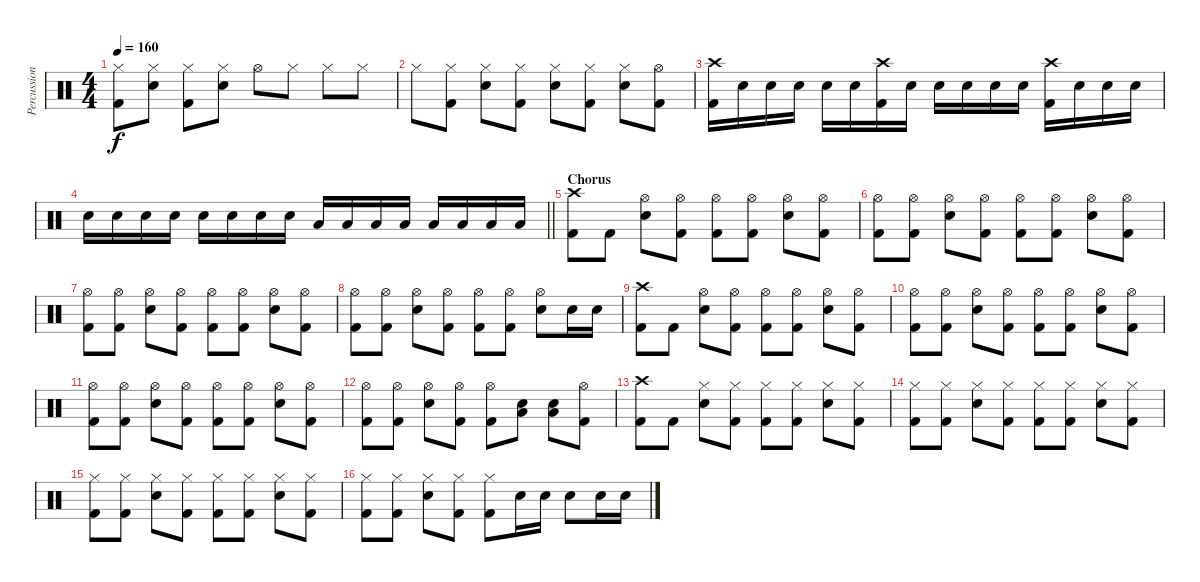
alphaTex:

\track ("Percussion" "Percussion") {instrument percussion}
\staff {score}
\articulation defaults
\ts (4 4)
\tempo 160
\clef neutral
\ks c
("Hi-Hat (closed)" "Kick (hit) 2").8{dy f} ("Hi-Hat (closed)" "Electric Snare (hit)").8 ("Hi-Hat (closed)" "Kick (hit) 2").8 ("Hi-Hat (closed)" "Electric Snare (hit)").8 "Hi-Hat (open)".8 "Hi-Hat (closed)".8 "Hi-Hat (closed)".8 "Hi-Hat (closed)".8 |
"Hi-Hat (closed)".8 ("Hi-Hat (closed)" "Kick (hit) 2").8 ("Hi-Hat (closed)" "Electric Snare (hit)").8 ("Hi-Hat (closed)" "Kick (hit) 2").8 ("Hi-Hat (closed)" "Electric Snare (hit)").8 ("Hi-Hat (closed)" "Kick (hit) 2").8 ("Hi-Hat (closed)" "Electric Snare (hit)").8 ("Hi-Hat (open)" "Kick (hit) 2").8 |
("Crash high (hit)" "Kick (hit) 2").16 "Electric Snare (hit)".16 "Electric Snare (hit)".16 "Electric Snare (hit)".16 "Electric Snare (hit)".16 "Electric Snare (hit)".16 ("Crash high (hit)" "Kick (hit) 2").16 "Electric Snare (hit)".16 "Electric Snare (hit)".16 "Electric Snare (hit)".16 "Electric Snare (hit)".16 "Electric Snare (hit)".16 ("Crash high (hit)" "Kick (hit) 2").16 "Electric Snare (hit)".16 "Electric Snare (hit)".16 "Electric Snare (hit)".16 |
\barLineRight lightlight "Electric Snare (hit)".16 "Electric Snare (hit)".16 "Electric Snare (hit)".16 "Electric Snare (hit)".16 "Electric Snare (hit)".16 "Electric Snare (hit)".16 "Electric Snare (hit)".16 "Electric Snare (hit)".16 "Low Tom (hit)".16 "Low Tom (hit)".16 "Low Tom (hit)".16 "Low Tom (hit)".16 "Low Tom (hit)".16 "Low Tom (hit)".16 "Low Tom (hit)".16 "Low Tom (hit)".16
|
\section ("" "Chorus")
("Crash high (hit)" "Kick (hit) 2").8 "Kick (hit) 2".8 ("Hi-Hat (open)" "Electric Snare (hit)").8 ("Hi-Hat (open)" "Kick (hit) 2").8 ("Hi-Hat (open)" "Kick (hit) 2").8 ("Hi-Hat (open)" "Kick (hit) 2").8 ("Hi-Hat (open)" "Electric Snare (hit)").8 ("Hi-Hat (open)" "Kick (hit) 2").8 |
("Hi-Hat (open)" "Kick (hit) 2").8 ("Hi-Hat (open)" "Kick (hit) 2").8 ("Hi-Hat (open)" "Electric Snare (hit)").8 ("Hi-Hat (open)" "Kick (hit) 2").8 ("Hi-Hat (open)" "Kick (hit) 2").8 ("Hi-Hat (open)" "Kick (hit) 2").8 ("Hi-Hat (open)" "Electric Snare (hit)").8 ("Hi-Hat (open)" "Kick (hit) 2").8 |
("Hi-Hat (open)" "Kick (hit) 2").8 ("Hi-Hat (open)" "Kick (hit) 2").8 ("Hi-Hat (open)" "Electric Snare (hit)").8 ("Hi-Hat (open)" "Kick (hit) 2").8 ("Hi-Hat (open)" "Kick (hit) 2").8 ("Hi-Hat (open)" "Kick (hit) 2").8 ("Hi-Hat (open)" "Electric Snare (hit)").8 ("Hi-Hat (open)" "Kick (hit) 2").8 |
("Hi-Hat (open)" "Kick (hit) 2").8 ("Hi-Hat (open)" "Kick (hit) 2").8 ("Hi-Hat (open)" "Electric Snare (hit)").8 ("Hi-Hat (open)" "Kick (hit) 2").8 ("Hi-Hat (open)" "Kick (hit) 2").8 ("Hi-Hat (open)" "Kick (hit) 2").8 ("Hi-Hat (open)" "Electric Snare (hit)").8 "Electric Snare (hit)".16 "Electric Snare (hit)".16 |
("Crash high (hit)" "Kick (hit) 2").8 "Kick (hit) 2".8 ("Hi-Hat (open)" "Electric Snare (hit)").8 ("Hi-Hat (open)" "Kick (hit) 2").8 ("Hi-Hat (open)" "Kick (hit) 2").8 ("Hi-Hat (open)" "Kick (hit) 2").8 ("Hi-Hat (open)" "Electric Snare (hit)").8 ("Hi-Hat (open)" "Kick (hit) 2").8 |
("Hi-Hat (open)" "Kick (hit) 2").8 ("Hi-Hat (open)" "Kick (hit) 2").8 ("Hi-Hat (open)" "Electric Snare (hit)").8 ("Hi-Hat (open)" "Kick (hit) 2").8 ("Hi-Hat (open)" "Kick (hit) 2").8 ("Hi-Hat (open)" "Kick (hit) 2").8 ("Hi-Hat (open)" "Electric Snare (hit)").8 ("Hi-Hat (open)" "Kick (hit) 2").8 |
("Hi-Hat (open)" "Kick (hit) 2").8 ("Hi-Hat (open)" "Kick (hit) 2").8 ("Hi-Hat (open)" "Electric Snare (hit)").8 ("Hi-Hat (open)" "Kick (hit) 2").8 ("Hi-Hat (open)" "Kick (hit) 2").8 ("Hi-Hat (open)" "Kick (hit) 2").8 ("Hi-Hat (open)" "Electric Snare (hit)").8 ("Hi-Hat (open)" "Kick (hit) 2").8 |
("Hi-Hat (open)" "Kick (hit) 2").8 ("Hi-Hat (open)" "Kick (hit) 2").8 ("Hi-Hat (open)" "Electric Snare (hit)").8 ("Hi-Hat (open)" "Kick (hit) 2").8 ("Hi-Hat (open)" "Kick (hit) 2").8 ("Low Floor Tom (hit)" "Electric Snare (hit)").8 ("Low Floor Tom (hit)" "Electric Snare (hit)").8 ("Hi-Hat (open)" "Kick (hit) 2").8 |
("Crash high (hit)" "Kick (hit) 2").8 "Kick (hit) 2".8 ("Hi-Hat (closed)" "Electric Snare (hit)").8 ("Hi-Hat (closed)" "Kick (hit) 2").8 ("Hi-Hat (closed)" "Kick (hit) 2").8 ("Hi-Hat (closed)" "Kick (hit) 2").8 ("Hi-Hat (closed)" "Electric Snare (hit)").8 ("Hi-Hat (closed)" "Kick (hit) 2").8 |
("Hi-Hat (closed)" "Kick (hit) 2").8 ("Hi-Hat (closed)" "Kick (hit) 2").8 ("Hi-Hat (closed)" "Electric Snare (hit)").8 ("Hi-Hat (closed)" "Kick (hit) 2").8 ("Hi-Hat (closed)" "Kick (hit) 2").8 ("Hi-Hat (closed)" "Kick (hit) 2").8 ("Hi-Hat (closed)" "Electric Snare (hit)").8 ("Hi-Hat (closed)" "Kick (hit) 2").8 |
("Hi-Hat (closed)" "Kick (hit) 2").8 ("Hi-Hat (closed)" "Kick (hit) 2").8 ("Hi-Hat (closed)" "Electric Snare (hit)").8 ("Hi-Hat (closed)" "Kick (hit) 2").8 ("Hi-Hat (closed)" "Kick (hit) 2").8 ("Hi-Hat (closed)" "Kick (hit) 2").8 ("Hi-Hat (closed)" "Electric Snare (hit)").8 ("Hi-Hat (closed)" "Kick (hit) 2").8 |
("Hi-Hat (closed)" "Kick (hit) 2").8 ("Hi-Hat (closed)" "Kick (hit) 2").8 ("Hi-Hat (closed)" "Electric Snare (hit)").8 ("Hi-Hat (closed)" "Kick (hit) 2").8 ("Hi-Hat (closed)" "Kick (hit) 2").8 "Electric Snare (hit)".16 "Electric Snare (hit)".16 "Electric Snare (hit)".8 "Electric Snare (hit)".16 "Electric Snare (hit)".16
